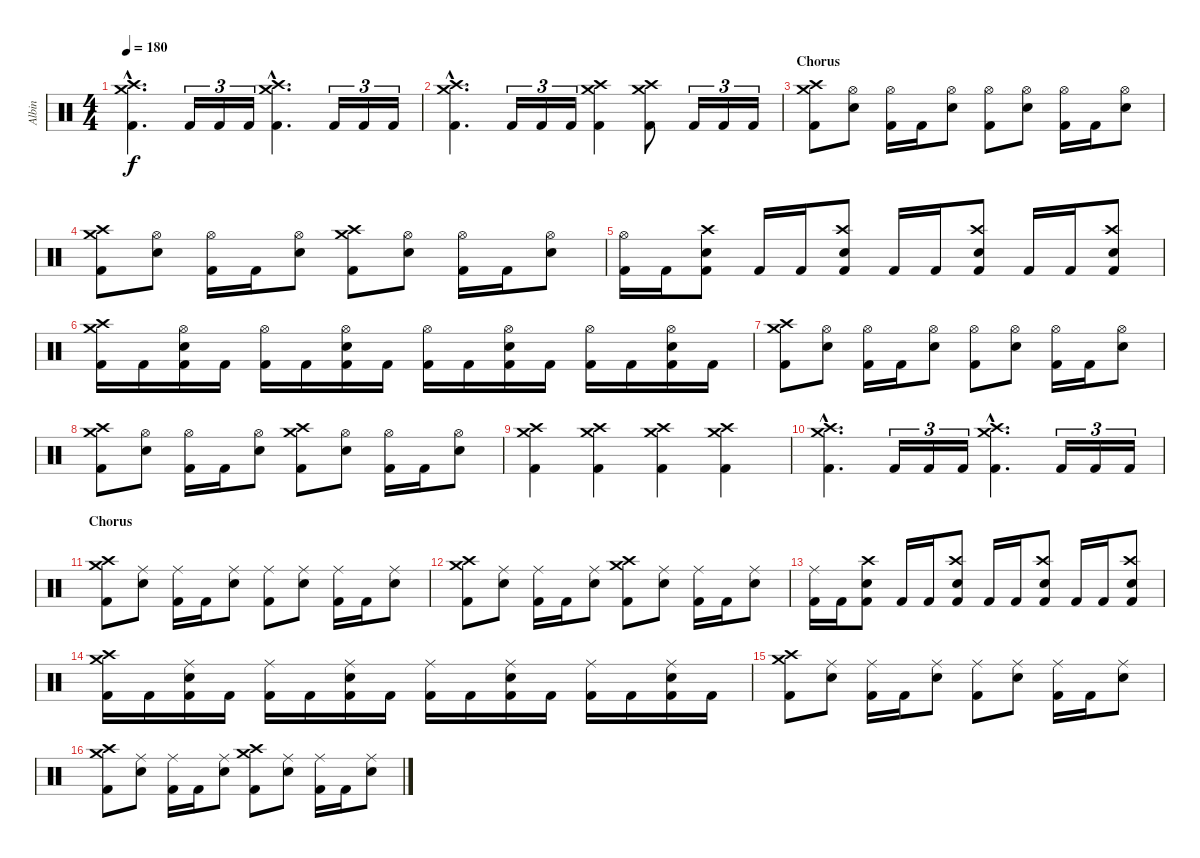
\track ("Albin" "Albin") {instrument percussion}
\staff {score}
\articulation defaults
\ts (4 4)
\tempo 180
\clef neutral
\ks c
("Kick (hit) 2"{hac} "Crash high (hit)"{hac} "Crash medium (hit)"{hac}).4{d dy f} "Kick (hit) 2".16{tu (3 2)} "Kick (hit) 2".16{tu (3 2)} "Kick (hit) 2".16{tu (3 2)} ("Kick (hit) 2"{hac} "Crash high (hit)"{hac} "Crash medium (hit)"{hac}).4{d} "Kick (hit) 2".16{tu (3 2)} "Kick (hit) 2".16{tu (3 2)} "Kick (hit) 2".16{tu (3 2)} |
("Kick (hit) 2"{hac} "Crash high (hit)"{hac} "Crash medium (hit)"{hac}).4{d} "Kick (hit) 2".16{tu (3 2)} "Kick (hit) 2".16{tu (3 2)} "Kick (hit) 2".16{tu (3 2)} ("Kick (hit) 2" "Crash high (hit)" "Crash medium (hit)").4 ("Kick (hit) 2" "Crash high (hit)" "Crash medium (hit)").8 "Kick (hit) 2".16{tu (3 2)} "Kick (hit) 2".16{tu (3 2)} "Kick (hit) 2".16{tu (3 2)} |
\section ("" "Chorus")
("Kick (hit) 2" "Crash high (hit)" "Crash medium (hit)").8 ("Electric Snare (hit)" "Hi-Hat (open)").8 ("Kick (hit) 2" "Hi-Hat (open)").16 "Kick (hit) 2".16 ("Electric Snare (hit)" "Hi-Hat (open)").8 ("Kick (hit) 2" "Hi-Hat (open)").8 ("Electric Snare (hit)" "Hi-Hat (open)").8 ("Kick (hit) 2" "Hi-Hat (open)").16 "Kick (hit) 2".16 ("Electric Snare (hit)" "Hi-Hat (open)").8 |
("Kick (hit) 2" "Crash high (hit)" "Crash medium (hit)").8 ("Electric Snare (hit)" "Hi-Hat (open)").8 ("Kick (hit) 2" "Hi-Hat (open)").16 "Kick (hit) 2".16 ("Electric Snare (hit)" "Hi-Hat (open)").8 ("Kick (hit) 2" "Crash high (hit)" "Crash medium (hit)").8 ("Electric Snare (hit)" "Hi-Hat (open)").8 ("Kick (hit) 2" "Hi-Hat (open)").16 "Kick (hit) 2".16 ("Electric Snare (hit)" "Hi-Hat (open)").8 |
("Kick (hit) 2" "Hi-Hat (open)").16 "Kick (hit) 2".16 ("Kick (hit) 2" "Electric Snare (hit)" "Crash high (hit)").8 "Kick (hit) 2".16 "Kick (hit) 2".16 ("Kick (hit) 2" "Electric Snare (hit)" "Crash high (hit)").8 "Kick (hit) 2".16 "Kick (hit) 2".16 ("Kick (hit) 2" "Electric Snare (hit)" "Crash high (hit)").8 "Kick (hit) 2".16 "Kick (hit) 2".16 ("Kick (hit) 2" "Electric Snare (hit)" "Crash high (hit)").8 |
("Kick (hit) 2" "Crash high (hit)" "Crash medium (hit)").16 "Kick (hit) 2".16 ("Kick (hit) 2" "Electric Snare (hit)" "Hi-Hat (open)").16 "Kick (hit) 2".16 ("Kick (hit) 2" "Hi-Hat (open)").16 "Kick (hit) 2".16 ("Kick (hit) 2" "Electric Snare (hit)" "Hi-Hat (open)").16 "Kick (hit) 2".16 ("Kick (hit) 2" "Hi-Hat (open)").16 "Kick (hit) 2".16 ("Kick (hit) 2" "Electric Snare (hit)" "Hi-Hat (open)").16 "Kick (hit) 2".16 ("Kick (hit) 2" "Hi-Hat (open)").16 "Kick (hit) 2".16 ("Kick (hit) 2" "Electric Snare (hit)" "Hi-Hat (open)").16 "Kick (hit) 2".16 |
("Kick (hit) 2" "Crash high (hit)" "Crash medium (hit)").8 ("Electric Snare (hit)" "Hi-Hat (open)").8 ("Kick (hit) 2" "Hi-Hat (open)").16 "Kick (hit) 2".16 ("Electric Snare (hit)" "Hi-Hat (open)").8 ("Kick (hit) 2" "Hi-Hat (open)").8 ("Electric Snare (hit)" "Hi-Hat (open)").8 ("Kick (hit) 2" "Hi-Hat (open)").16 "Kick (hit) 2".16 ("Electric Snare (hit)" "Hi-Hat (open)").8 |
("Kick (hit) 2" "Crash high (hit)" "Crash medium (hit)").8 ("Electric Snare (hit)" "Hi-Hat (open)").8 ("Kick (hit) 2" "Hi-Hat (open)").16 "Kick (hit) 2".16 ("Electric Snare (hit)" "Hi-Hat (open)").8 ("Kick (hit) 2" "Crash high (hit)" "Crash medium (hit)").8 ("Electric Snare (hit)" "Hi-Hat (open)").8 ("Kick (hit) 2" "Hi-Hat (open)").16 "Kick (hit) 2".16 ("Electric Snare (hit)" "Hi-Hat (open)").8 |
("Kick (hit) 2" "Crash high (hit)" "Crash medium (hit)").4 ("Kick (hit) 2" "Crash high (hit)" "Crash medium (hit)").4 ("Kick (hit) 2" "Crash high (hit)" "Crash medium (hit)").4 ("Kick (hit) 2" "Crash high (hit)" "Crash medium (hit)").4 |
("Kick (hit) 2"{hac} "Crash high (hit)"{hac} "Crash medium (hit)"{hac}).4{d} "Kick (hit) 2".16{tu (3 2)} "Kick (hit) 2".16{tu (3 2)} "Kick (hit) 2".16{tu (3 2)} ("Kick (hit) 2"{hac} "Crash high (hit)"{hac} "Crash medium (hit)"{hac}).4{d} "Kick (hit) 2".16{tu (3 2)} "Kick (hit) 2".16{tu (3 2)} "Kick (hit) 2".16{tu (3 2)} |
\section ("" "Chorus")
("Kick (hit) 2" "Crash high (hit)" "Crash medium (hit)").8 ("Electric Snare (hit)" "Ride (middle)").8 ("Kick (hit) 2" "Ride (middle)").16 "Kick (hit) 2".16 ("Electric Snare (hit)" "Ride (middle)").8 ("Kick (hit) 2" "Ride (middle)").8 ("Electric Snare (hit)" "Ride (middle)").8 ("Kick (hit) 2" "Ride (middle)").16 "Kick (hit) 2".16 ("Electric Snare (hit)" "Ride (middle)").8 |
("Kick (hit) 2" "Crash high (hit)" "Crash medium (hit)").8 ("Electric Snare (hit)" "Ride (middle)").8 ("Kick (hit) 2" "Ride (middle)").16 "Kick (hit) 2".16 ("Electric Snare (hit)" "Ride (middle)").8 ("Kick (hit) 2" "Crash high (hit)" "Crash medium (hit)").8 ("Electric Snare (hit)" "Ride (middle)").8 ("Kick (hit) 2" "Ride (middle)").16 "Kick (hit) 2".16 ("Electric Snare (hit)" "Ride (middle)").8 |
("Kick (hit) 2" "Ride (middle)").16 "Kick (hit) 2".16 ("Kick (hit) 2" "Electric Snare (hit)" "Crash high (hit)").8 "Kick (hit) 2".16 "Kick (hit) 2".16 ("Kick (hit) 2" "Electric Snare (hit)" "Crash high (hit)").8 "Kick (hit) 2".16 "Kick (hit) 2".16 ("Kick (hit) 2" "Electric Snare (hit)" "Crash high (hit)").8 "Kick (hit) 2".16 "Kick (hit) 2".16 ("Kick (hit) 2" "Electric Snare (hit)" "Crash high (hit)").8 |
("Kick (hit) 2" "Crash high (hit)" "Crash medium (hit)").16 "Kick (hit) 2".16 ("Kick (hit) 2" "Electric Snare (hit)" "Ride (middle)").16 "Kick (hit) 2".16 ("Kick (hit) 2" "Ride (middle)").16 "Kick (hit) 2".16 ("Kick (hit) 2" "Electric Snare (hit)" "Ride (middle)").16 "Kick (hit) 2".16 ("Kick (hit) 2" "Ride (middle)").16 "Kick (hit) 2".16 ("Kick (hit) 2" "Electric Snare (hit)" "Ride (middle)").16 "Kick (hit) 2".16 ("Kick (hit) 2" "Ride (middle)").16 "Kick (hit) 2".16 ("Kick (hit) 2" "Electric Snare (hit)" "Ride (middle)").16 "Kick (hit) 2".16 |
("Kick (hit) 2" "Crash high (hit)" "Crash medium (hit)").8 ("Electric Snare (hit)" "Ride (middle)").8 ("Kick (hit) 2" "Ride (middle)").16 "Kick (hit) 2".16 ("Electric Snare (hit)" "Ride (middle)").8 ("Kick (hit) 2" "Ride (middle)").8 ("Electric Snare (hit)" "Ride (middle)").8 ("Kick (hit) 2" "Ride (middle)").16 "Kick (hit) 2".16 ("Electric Snare (hit)" "Ride (middle)").8 |
("Kick (hit) 2" "Crash high (hit)" "Crash medium (hit)").8 ("Electric Snare (hit)" "Ride (middle)").8 ("Kick (hit) 2" "Ride (middle)").16 "Kick (hit) 2".16 ("Electric Snare (hit)" "Ride (middle)").8 ("Kick (hit) 2" "Crash high (hit)" "Crash medium (hit)").8 ("Electric Snare (hit)" "Ride (middle)").8 ("Kick (hit) 2" "Ride (middle)").16 "Kick (hit) 2".16 ("Electric Snare (hit)" "Ride (middle)").8
